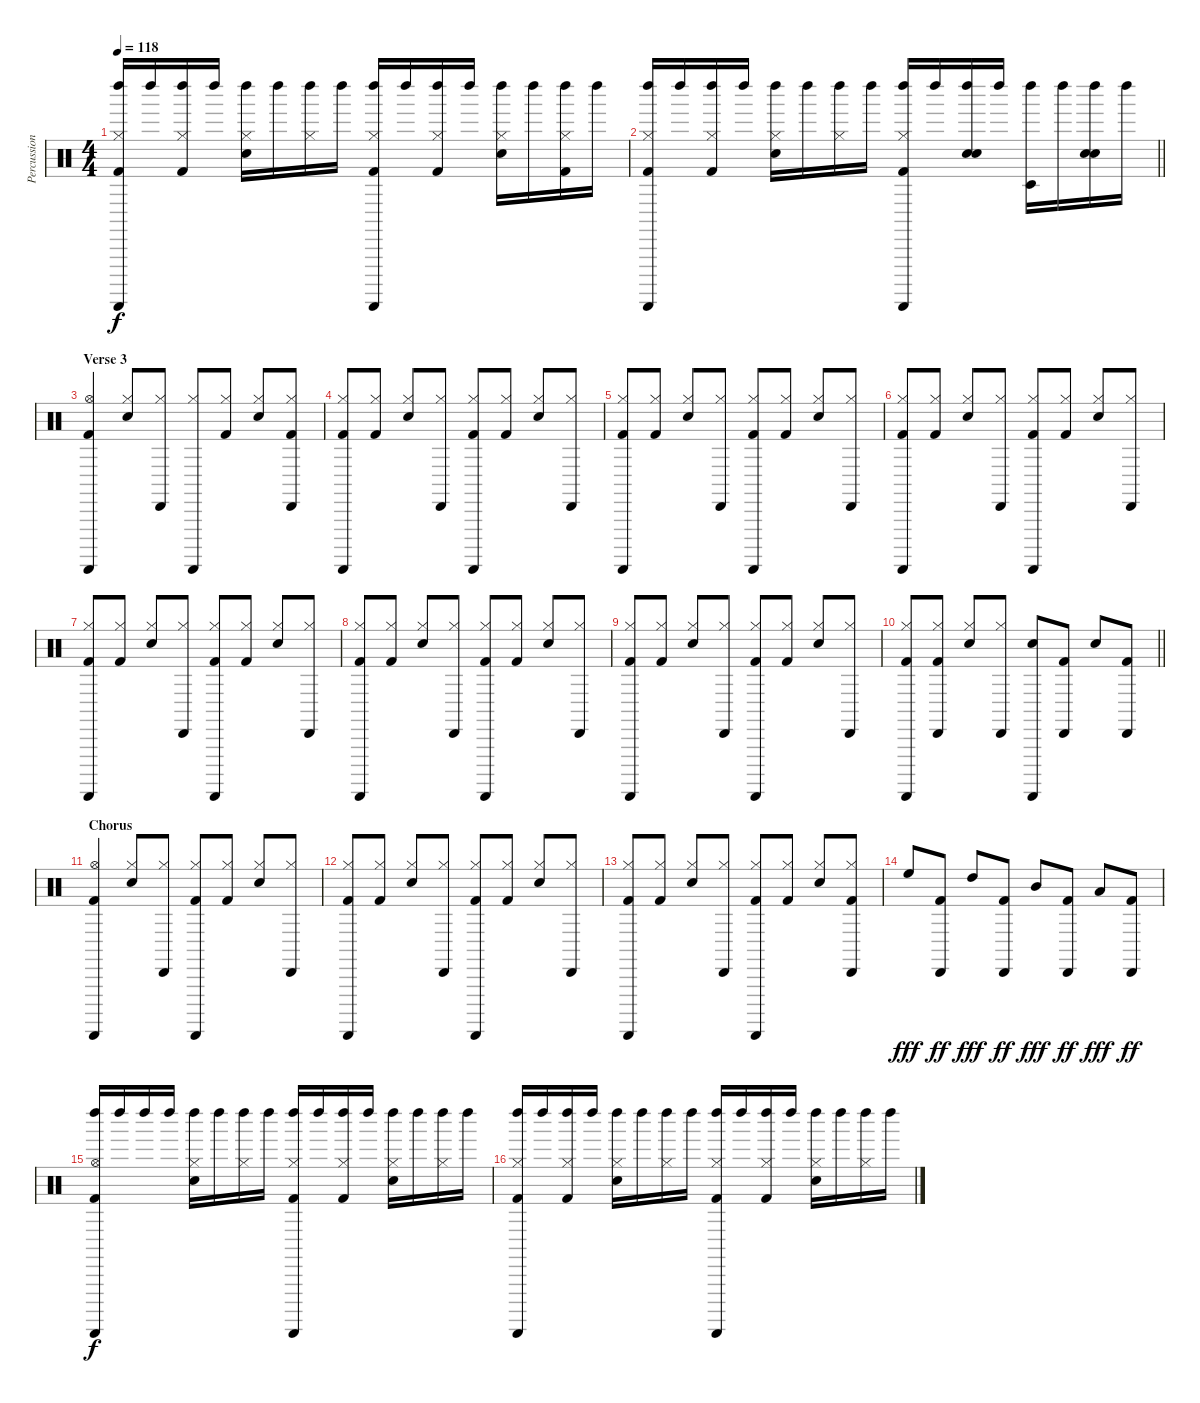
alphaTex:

\track ("Percussions" "Percussion") {instrument percussion}
\staff {score}
\articulation defaults
\ts (4 4)
\tempo 118
\clef neutral
\ks c
("Guiro (scrap-return)" "Left Maraca (hit)" "Hi-Hat (closed)" "Kick (hit) 2").16{dy f} "Left Maraca (hit)".16 ("Left Maraca (hit)" "Hi-Hat (closed)" "Kick (hit) 2").16 "Left Maraca (hit)".16 ("Left Maraca (hit)" "Hi-Hat (closed)" "Snare (hit) 2").16 "Left Maraca (hit)".16 ("Left Maraca (hit)" "Hi-Hat (closed)").16 "Left Maraca (hit)".16 ("Guiro (scrap-return)" "Left Maraca (hit)" "Hi-Hat (closed)" "Kick (hit) 2").16 "Left Maraca (hit)".16 ("Left Maraca (hit)" "Hi-Hat (closed)" "Kick (hit) 2").16 "Left Maraca (hit)".16 ("Left Maraca (hit)" "Hi-Hat (closed)" "Snare (hit) 2").16 "Left Maraca (hit)".16 ("Left Maraca (hit)" "Hi-Hat (closed)" "Kick (hit) 2").16 "Left Maraca (hit)".16 |
\barLineRight lightlight
("Guiro (scrap-return)" "Left Maraca (hit)" "Hi-Hat (closed)" "Kick (hit) 2").16 "Left Maraca (hit)".16 ("Left Maraca (hit)" "Hi-Hat (closed)" "Kick (hit) 2").16 "Left Maraca (hit)".16 ("Left Maraca (hit)" "Hi-Hat (closed)" "Snare (hit) 2").16 "Left Maraca (hit)".16 ("Left Maraca (hit)" "Hi-Hat (closed)").16 "Left Maraca (hit)".16 ("Guiro (scrap-return)" "Left Maraca (hit)" "Hi-Hat (closed)" "Kick (hit) 2").16 "Left Maraca (hit)".16 ("Left Maraca (hit)" "Snare (hit) 2" "Snare (hit) 2").16 "Left Maraca (hit)".16 ("Left Maraca (hit)" "Timbale low (hit)").16 "Left Maraca (hit)".16 ("Left Maraca (hit)" "Snare (hit) 2" "Snare (hit) 2").16 "Left Maraca (hit)".16 |
\section ("" "Verse 3")
("Guiro (scrap-return)" "Hi-Hat (open)" "Kick (hit) 2").4 ("Hi-Hat (closed)" "Snare (hit) 2").8 ("Cabasa (hit)" "Hi-Hat (closed)").8 ("Guiro (scrap-return)" "Hi-Hat (closed)").8 ("Hi-Hat (closed)" "Kick (hit) 2").8 ("Hi-Hat (closed)" "Snare (hit) 2").8 ("Cabasa (hit)" "Hi-Hat (closed)" "Kick (hit) 2").8 |
("Guiro (scrap-return)" "Hi-Hat (closed)" "Kick (hit) 2").8 ("Hi-Hat (closed)" "Kick (hit) 2").8 ("Hi-Hat (closed)" "Snare (hit) 2").8 ("Cabasa (hit)" "Hi-Hat (closed)").8 ("Guiro (scrap-return)" "Hi-Hat (closed)" "Kick (hit) 2").8 ("Hi-Hat (closed)" "Kick (hit) 2").8 ("Hi-Hat (closed)" "Snare (hit) 2").8 ("Cabasa (hit)" "Hi-Hat (closed)").8 |
("Guiro (scrap-return)" "Hi-Hat (closed)" "Kick (hit) 2").8 ("Hi-Hat (closed)" "Kick (hit) 2").8 ("Hi-Hat (closed)" "Snare (hit) 2").8 ("Cabasa (hit)" "Hi-Hat (closed)").8 ("Guiro (scrap-return)" "Hi-Hat (closed)" "Kick (hit) 2").8 ("Hi-Hat (closed)" "Kick (hit) 2").8 ("Hi-Hat (closed)" "Snare (hit) 2").8 ("Cabasa (hit)" "Hi-Hat (closed)").8 |
("Guiro (scrap-return)" "Hi-Hat (closed)" "Kick (hit) 2").8 ("Hi-Hat (closed)" "Kick (hit) 2").8 ("Hi-Hat (closed)" "Snare (hit) 2").8 ("Cabasa (hit)" "Hi-Hat (closed)").8 ("Guiro (scrap-return)" "Hi-Hat (closed)" "Kick (hit) 2").8 ("Hi-Hat (closed)" "Kick (hit) 2").8 ("Hi-Hat (closed)" "Snare (hit) 2").8 ("Cabasa (hit)" "Hi-Hat (closed)").8 |
("Guiro (scrap-return)" "Hi-Hat (closed)" "Kick (hit) 2").8 ("Hi-Hat (closed)" "Kick (hit) 2").8 ("Hi-Hat (closed)" "Snare (hit) 2").8 ("Cabasa (hit)" "Hi-Hat (closed)").8 ("Guiro (scrap-return)" "Hi-Hat (closed)" "Kick (hit) 2").8 ("Hi-Hat (closed)" "Kick (hit) 2").8 ("Hi-Hat (closed)" "Snare (hit) 2").8 ("Cabasa (hit)" "Hi-Hat (closed)").8 |
("Guiro (scrap-return)" "Hi-Hat (closed)" "Kick (hit) 2").8 ("Hi-Hat (closed)" "Kick (hit) 2").8 ("Hi-Hat (closed)" "Snare (hit) 2").8 ("Cabasa (hit)" "Hi-Hat (closed)").8 ("Guiro (scrap-return)" "Hi-Hat (closed)" "Kick (hit) 2").8 ("Hi-Hat (closed)" "Kick (hit) 2").8 ("Hi-Hat (closed)" "Snare (hit) 2").8 ("Cabasa (hit)" "Hi-Hat (closed)").8 |
("Guiro (scrap-return)" "Hi-Hat (closed)" "Kick (hit) 2").8 ("Hi-Hat (closed)" "Kick (hit) 2").8 ("Hi-Hat (closed)" "Snare (hit) 2").8 ("Cabasa (hit)" "Hi-Hat (closed)").8 ("Guiro (scrap-return)" "Hi-Hat (closed)" "Kick (hit) 2").8 ("Hi-Hat (closed)" "Kick (hit) 2").8 ("Hi-Hat (closed)" "Snare (hit) 2").8 ("Cabasa (hit)" "Hi-Hat (closed)").8 |
\barLineRight lightlight
("Guiro (scrap-return)" "Hi-Hat (closed)" "Kick (hit) 2").8 ("Cabasa (hit)" "Hi-Hat (closed)" "Kick (hit) 2").8 ("Hi-Hat (closed)" "Snare (hit) 2").8 ("Cabasa (hit)" "Hi-Hat (closed)").8 ("Guiro (scrap-return)" "Snare (hit) 2").8 ("Cabasa (hit)" "Kick (hit) 2").8 "Snare (hit) 2".8 ("Cabasa (hit)" "Kick (hit) 2").8 |
\section ("" "Chorus")
("Guiro (scrap-return)" "Hi-Hat (open)" "Kick (hit) 2").4 ("Hi-Hat (closed)" "Snare (hit) 2").8 ("Cabasa (hit)" "Hi-Hat (closed)").8 ("Guiro (scrap-return)" "Hi-Hat (closed)" "Kick (hit) 2").8 ("Hi-Hat (closed)" "Kick (hit) 2").8 ("Hi-Hat (closed)" "Snare (hit) 2").8 ("Cabasa (hit)" "Hi-Hat (closed)").8 |
("Guiro (scrap-return)" "Hi-Hat (closed)" "Kick (hit) 2").8 ("Hi-Hat (closed)" "Kick (hit) 2").8 ("Hi-Hat (closed)" "Snare (hit) 2").8 ("Cabasa (hit)" "Hi-Hat (closed)").8 ("Guiro (scrap-return)" "Hi-Hat (closed)" "Kick (hit) 2").8 ("Hi-Hat (closed)" "Kick (hit) 2").8 ("Hi-Hat (closed)" "Snare (hit) 2").8 ("Cabasa (hit)" "Hi-Hat (closed)").8 |
("Guiro (scrap-return)" "Hi-Hat (closed)" "Kick (hit) 2").8 ("Hi-Hat (closed)" "Kick (hit) 2").8 ("Hi-Hat (closed)" "Snare (hit) 2").8 ("Cabasa (hit)" "Hi-Hat (closed)").8 ("Guiro (scrap-return)" "Hi-Hat (closed)" "Kick (hit) 2").8 ("Hi-Hat (closed)" "Kick (hit) 2").8 ("Hi-Hat (closed)" "Snare (hit) 2").8 ("Cabasa (hit)" "Hi-Hat (closed)" "Kick (hit) 2").8 |
"High Floor Tom (hit)".8{dy fff} ("Cabasa (hit)" "Kick (hit) 2").8{dy ff} "High Tom (hit)".8{dy fff} ("Cabasa (hit)" "Kick (hit) 2").8{dy ff} "Mid Tom (hit)".8{dy fff} ("Cabasa (hit)" "Kick (hit) 2").8{dy ff} "Low Tom (hit)".8{dy fff} ("Cabasa (hit)" "Kick (hit) 2").8{dy ff} |
("Guiro (scrap-return)" "Left Maraca (hit)" "Hi-Hat (open)" "Kick (hit) 2").16{dy f} "Left Maraca (hit)".16 "Left Maraca (hit)".16 "Left Maraca (hit)".16 ("Left Maraca (hit)" "Hi-Hat (closed)" "Snare (hit) 2").16 "Left Maraca (hit)".16 ("Left Maraca (hit)" "Hi-Hat (closed)").16 "Left Maraca (hit)".16 ("Guiro (scrap-return)" "Left Maraca (hit)" "Hi-Hat (closed)" "Kick (hit) 2").16 "Left Maraca (hit)".16 ("Left Maraca (hit)" "Hi-Hat (closed)" "Kick (hit) 2").16 "Left Maraca (hit)".16 ("Left Maraca (hit)" "Hi-Hat (closed)" "Snare (hit) 2").16 "Left Maraca (hit)".16 ("Left Maraca (hit)" "Hi-Hat (closed)").16 "Left Maraca (hit)".16 |
("Guiro (scrap-return)" "Left Maraca (hit)" "Hi-Hat (closed)" "Kick (hit) 2").16 "Left Maraca (hit)".16 ("Left Maraca (hit)" "Hi-Hat (closed)" "Kick (hit) 2").16 "Left Maraca (hit)".16 ("Left Maraca (hit)" "Hi-Hat (closed)" "Snare (hit) 2").16 "Left Maraca (hit)".16 ("Left Maraca (hit)" "Hi-Hat (closed)").16 "Left Maraca (hit)".16 ("Guiro (scrap-return)" "Left Maraca (hit)" "Hi-Hat (closed)" "Kick (hit) 2").16 "Left Maraca (hit)".16 ("Left Maraca (hit)" "Hi-Hat (closed)" "Kick (hit) 2").16 "Left Maraca (hit)".16 ("Left Maraca (hit)" "Hi-Hat (closed)" "Snare (hit) 2").16 "Left Maraca (hit)".16 ("Left Maraca (hit)" "Hi-Hat (closed)").16 "Left Maraca (hit)".16
